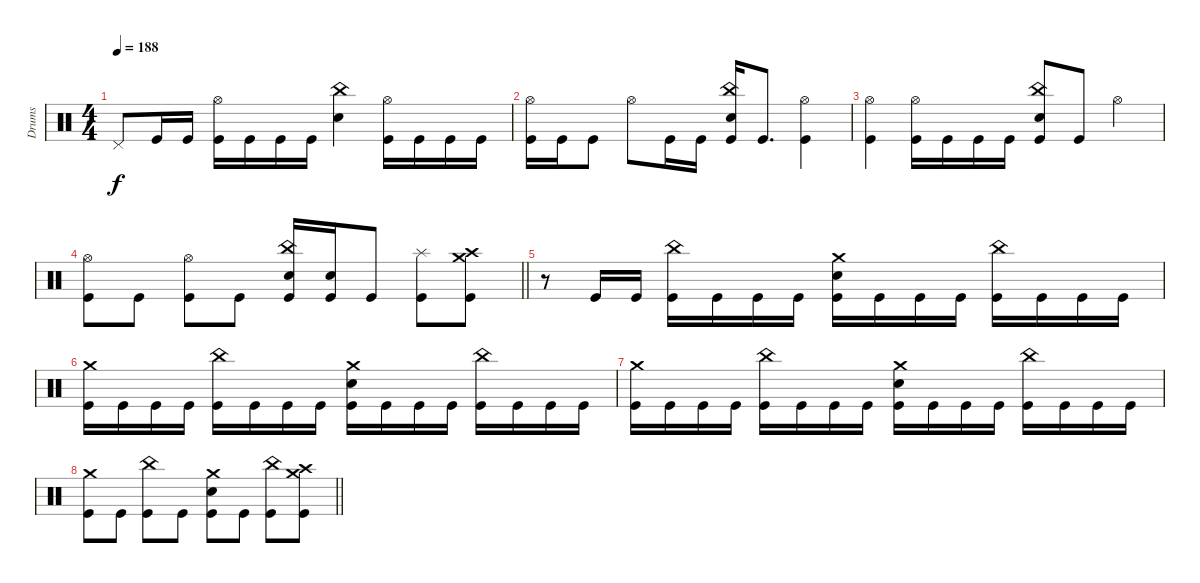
\track ("Drums" "Drums") {instrument percussion}
\staff
\articulation defaults
\ts (4 4)
\section ("" "")
\tempo 188
\clef neutral
\ks c "Pedal Hi-Hat (hit)".8{dy f} "Kick (hit)".16 "Kick (hit)".16
("Hi-Hat (open)" "Kick (hit)").16 "Kick (hit)".16 "Kick (hit)".16 "Kick (hit)".16 ("China (hit)" "Electric Snare (hit)").4 ("Hi-Hat (open)" "Kick (hit)").16 "Kick (hit)".16 "Kick (hit)".16 "Kick (hit)".16 |
("Hi-Hat (open)" "Kick (hit)").16 "Kick (hit)".16 "Kick (hit)".8 "Hi-Hat (open)".8 "Kick (hit)".16 "Kick (hit)".16 ("China (hit)" "Electric Snare (hit)" "Kick (hit)").16 "Kick (hit)".8{d} ("Hi-Hat (open)" "Kick (hit)").4 |
("Hi-Hat (open)" "Kick (hit)").4 ("Hi-Hat (open)" "Kick (hit)").16 "Kick (hit)".16 "Kick (hit)".16 "Kick (hit)".16 ("China (hit)" "Electric Snare (hit)" "Kick (hit)").8 "Kick (hit)".8 "Hi-Hat (open)".4 |
\barLineRight lightlight
("Hi-Hat (open)" "Kick (hit)").8 "Kick (hit)".8 ("Hi-Hat (open)" "Kick (hit)").8 "Kick (hit)".8 ("China (hit)" "Electric Snare (hit)" "Kick (hit)").16 ("Electric Snare (hit)" "Kick (hit)").16 "Kick (hit)".8 ("Splash (hit)" "Kick (hit)").8 ("Crash high (hit)" "Crash medium (hit)" "Kick (hit)").8 |
r.8 "Kick (hit)".16 "Kick (hit)".16 ("China (hit)" "Kick (hit)").16 "Kick (hit)".16 "Kick (hit)".16 "Kick (hit)".16 ("Crash medium (hit)" "Electric Snare (hit)" "Kick (hit)").16 "Kick (hit)".16 "Kick (hit)".16 "Kick (hit)".16 ("China (hit)" "Kick (hit)").16 "Kick (hit)".16 "Kick (hit)".16 "Kick (hit)".16 |
("Crash medium (hit)" "Kick (hit)").16 "Kick (hit)".16 "Kick (hit)".16 "Kick (hit)".16 ("China (hit)" "Kick (hit)").16 "Kick (hit)".16 "Kick (hit)".16 "Kick (hit)".16 ("Crash medium (hit)" "Electric Snare (hit)" "Kick (hit)").16 "Kick (hit)".16 "Kick (hit)".16 "Kick (hit)".16 ("China (hit)" "Kick (hit)").16 "Kick (hit)".16 "Kick (hit)".16 "Kick (hit)".16 |
("Crash medium (hit)" "Kick (hit)").16 "Kick (hit)".16 "Kick (hit)".16 "Kick (hit)".16 ("China (hit)" "Kick (hit)").16 "Kick (hit)".16 "Kick (hit)".16 "Kick (hit)".16 ("Crash medium (hit)" "Electric Snare (hit)" "Kick (hit)").16 "Kick (hit)".16 "Kick (hit)".16 "Kick (hit)".16 ("China (hit)" "Kick (hit)").16 "Kick (hit)".16 "Kick (hit)".16 "Kick (hit)".16 |
\barLineRight lightlight
("Crash medium (hit)" "Kick (hit)").8 "Kick (hit)".8 ("China (hit)" "Kick (hit)").8 "Kick (hit)".8 ("Crash medium (hit)" "Electric Snare (hit)" "Kick (hit)").8 "Kick (hit)".8 ("China (hit)" "Kick (hit)").8 ("Crash high (hit)" "Crash medium (hit)" "Kick (hit)").8
